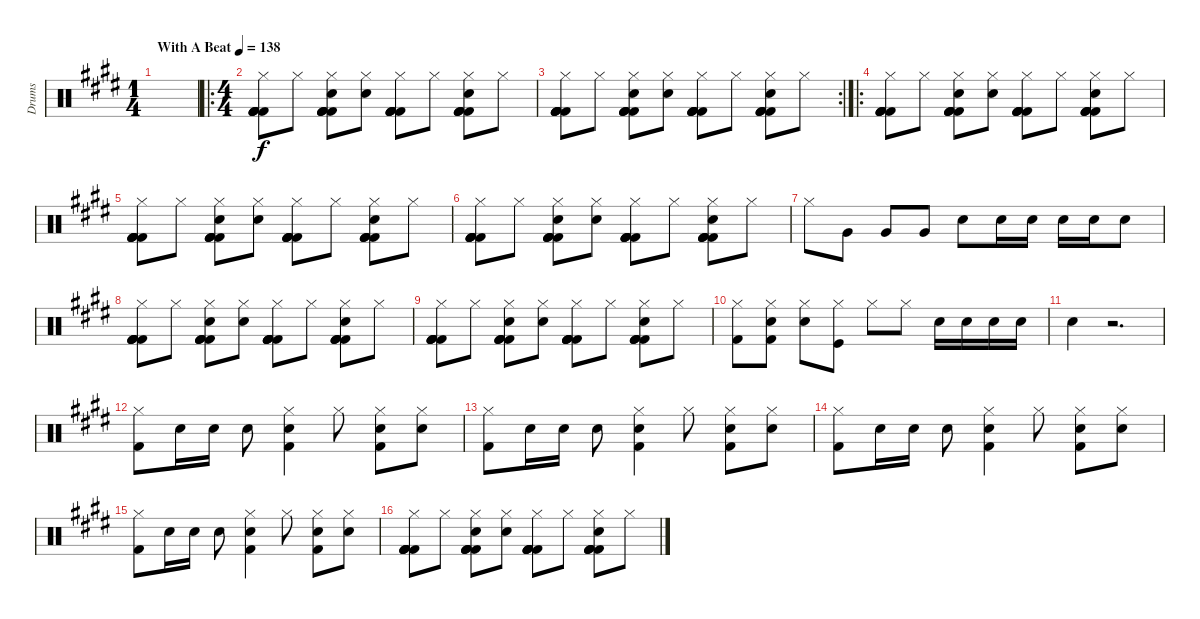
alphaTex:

\track ("Drums" "Drums") {instrument percussion}
\staff {score}
\articulation defaults
\ts (1 4)
\tempo (138 "With A Beat")
\clef neutral
\ks e
|
\ro
\ts (4 4)
("Hi-Hat (closed)" "Kick (hit) 2" "Kick (hit) 2" "Kick (hit) 2" "Kick (hit) 2" "Kick (hit) 2").8 "Hi-Hat (closed)".8 ("Hi-Hat (closed)" "Snare (hit) 2" "Kick (hit) 2" "Kick (hit) 2" "Kick (hit) 2" "Kick (hit) 2").8 ("Hi-Hat (closed)" "Snare (hit) 2").8 ("Hi-Hat (closed)" "Kick (hit) 2" "Kick (hit) 2" "Kick (hit) 2" "Kick (hit) 2" "Kick (hit) 2").8 "Hi-Hat (closed)".8 ("Hi-Hat (closed)" "Snare (hit) 2" "Kick (hit) 2" "Kick (hit) 2" "Kick (hit) 2" "Kick (hit) 2").8 "Hi-Hat (closed)".8 |
\rc 2
("Hi-Hat (closed)" "Kick (hit) 2" "Kick (hit) 2" "Kick (hit) 2" "Kick (hit) 2" "Kick (hit) 2").8 "Hi-Hat (closed)".8 ("Hi-Hat (closed)" "Snare (hit) 2" "Kick (hit) 2" "Kick (hit) 2" "Kick (hit) 2" "Kick (hit) 2").8 ("Hi-Hat (closed)" "Snare (hit) 2").8 ("Hi-Hat (closed)" "Kick (hit) 2" "Kick (hit) 2" "Kick (hit) 2" "Kick (hit) 2" "Kick (hit) 2").8 "Hi-Hat (closed)".8 ("Hi-Hat (closed)" "Snare (hit) 2" "Kick (hit) 2" "Kick (hit) 2" "Kick (hit) 2" "Kick (hit) 2").8 "Hi-Hat (closed)".8 |
\ro
("Hi-Hat (closed)" "Kick (hit) 2" "Kick (hit) 2" "Kick (hit) 2" "Kick (hit) 2" "Kick (hit) 2").8 "Hi-Hat (closed)".8 ("Hi-Hat (closed)" "Snare (hit) 2" "Kick (hit) 2" "Kick (hit) 2" "Kick (hit) 2" "Kick (hit) 2").8 ("Hi-Hat (closed)" "Snare (hit) 2").8 ("Hi-Hat (closed)" "Kick (hit) 2" "Kick (hit) 2" "Kick (hit) 2" "Kick (hit) 2" "Kick (hit) 2").8 "Hi-Hat (closed)".8 ("Hi-Hat (closed)" "Snare (hit) 2" "Kick (hit) 2" "Kick (hit) 2" "Kick (hit) 2" "Kick (hit) 2").8 "Hi-Hat (closed)".8 |
("Hi-Hat (closed)" "Kick (hit) 2" "Kick (hit) 2" "Kick (hit) 2" "Kick (hit) 2" "Kick (hit) 2").8 "Hi-Hat (closed)".8 ("Hi-Hat (closed)" "Snare (hit) 2" "Kick (hit) 2" "Kick (hit) 2" "Kick (hit) 2" "Kick (hit) 2").8 ("Hi-Hat (closed)" "Snare (hit) 2").8 ("Hi-Hat (closed)" "Kick (hit) 2" "Kick (hit) 2" "Kick (hit) 2" "Kick (hit) 2" "Kick (hit) 2").8 "Hi-Hat (closed)".8 ("Hi-Hat (closed)" "Snare (hit) 2" "Kick (hit) 2" "Kick (hit) 2" "Kick (hit) 2" "Kick (hit) 2").8 "Hi-Hat (closed)".8 |
("Hi-Hat (closed)" "Kick (hit) 2" "Kick (hit) 2" "Kick (hit) 2" "Kick (hit) 2" "Kick (hit) 2").8 "Hi-Hat (closed)".8 ("Hi-Hat (closed)" "Snare (hit) 2" "Kick (hit) 2" "Kick (hit) 2" "Kick (hit) 2" "Kick (hit) 2").8 ("Hi-Hat (closed)" "Snare (hit) 2").8 ("Hi-Hat (closed)" "Kick (hit) 2" "Kick (hit) 2" "Kick (hit) 2" "Kick (hit) 2" "Kick (hit) 2").8 "Hi-Hat (closed)".8 ("Hi-Hat (closed)" "Snare (hit) 2" "Kick (hit) 2" "Kick (hit) 2" "Kick (hit) 2" "Kick (hit) 2").8 "Hi-Hat (closed)".8 |
"Hi-Hat (closed)".8 "Very Low Tom (hit)".8 "Very Low Tom (hit)".8 "Very Low Tom (hit)".8 "Snare (hit) 2".8 "Snare (hit) 2".16 "Snare (hit) 2".16 "Snare (hit) 2".16 "Snare (hit) 2".16 "Snare (hit) 2".8 |
("Hi-Hat (closed)" "Kick (hit) 2" "Kick (hit) 2" "Kick (hit) 2" "Kick (hit) 2" "Kick (hit) 2").8 "Hi-Hat (closed)".8 ("Hi-Hat (closed)" "Snare (hit) 2" "Kick (hit) 2" "Kick (hit) 2" "Kick (hit) 2" "Kick (hit) 2").8 ("Hi-Hat (closed)" "Snare (hit) 2").8 ("Hi-Hat (closed)" "Kick (hit) 2" "Kick (hit) 2" "Kick (hit) 2" "Kick (hit) 2" "Kick (hit) 2").8 "Hi-Hat (closed)".8 ("Hi-Hat (closed)" "Snare (hit) 2" "Kick (hit) 2" "Kick (hit) 2" "Kick (hit) 2" "Kick (hit) 2").8 "Hi-Hat (closed)".8 |
("Hi-Hat (closed)" "Kick (hit) 2" "Kick (hit) 2" "Kick (hit) 2" "Kick (hit) 2" "Kick (hit) 2").8 "Hi-Hat (closed)".8 ("Hi-Hat (closed)" "Snare (hit) 2" "Kick (hit) 2" "Kick (hit) 2" "Kick (hit) 2" "Kick (hit) 2").8 ("Hi-Hat (closed)" "Snare (hit) 2").8 ("Hi-Hat (closed)" "Kick (hit) 2" "Kick (hit) 2" "Kick (hit) 2" "Kick (hit) 2" "Kick (hit) 2").8 "Hi-Hat (closed)".8 ("Hi-Hat (closed)" "Snare (hit) 2" "Kick (hit) 2" "Kick (hit) 2" "Kick (hit) 2" "Kick (hit) 2").8 "Hi-Hat (closed)".8 |
("Hi-Hat (closed)" "Kick (hit) 2").8 ("Hi-Hat (closed)" "Kick (hit) 2" "Snare (hit) 2").8 ("Hi-Hat (closed)" "Snare (hit) 2").8 ("Hi-Hat (closed)" "Kick (hit)").8 "Hi-Hat (closed)".8 "Hi-Hat (closed)".8 "Snare (hit) 2".16 "Snare (hit) 2".16 "Snare (hit) 2".16 "Snare (hit) 2".16 |
"Snare (hit) 2".4 r.2{d} |
("Hi-Hat (closed)" "Kick (hit) 2").8 "Snare (hit) 2".16 "Snare (hit) 2".16 "Snare (hit) 2".8 ("Hi-Hat (closed)" "Snare (hit) 2" "Kick (hit) 2").4 "Hi-Hat (closed)".8 ("Hi-Hat (closed)" "Snare (hit) 2" "Kick (hit) 2").8 ("Hi-Hat (closed)" "Snare (hit) 2").8 |
("Hi-Hat (closed)" "Kick (hit) 2").8 "Snare (hit) 2".16 "Snare (hit) 2".16 "Snare (hit) 2".8 ("Hi-Hat (closed)" "Snare (hit) 2" "Kick (hit) 2").4 "Hi-Hat (closed)".8 ("Hi-Hat (closed)" "Snare (hit) 2" "Kick (hit) 2").8 ("Hi-Hat (closed)" "Snare (hit) 2").8 |
("Hi-Hat (closed)" "Kick (hit) 2").8 "Snare (hit) 2".16 "Snare (hit) 2".16 "Snare (hit) 2".8 ("Hi-Hat (closed)" "Snare (hit) 2" "Kick (hit) 2").4 "Hi-Hat (closed)".8 ("Hi-Hat (closed)" "Snare (hit) 2" "Kick (hit) 2").8 ("Hi-Hat (closed)" "Snare (hit) 2").8 |
("Hi-Hat (closed)" "Kick (hit) 2").8 "Snare (hit) 2".16 "Snare (hit) 2".16 "Snare (hit) 2".8 ("Hi-Hat (closed)" "Snare (hit) 2" "Kick (hit) 2").4 "Hi-Hat (closed)".8 ("Hi-Hat (closed)" "Snare (hit) 2" "Kick (hit) 2").8 ("Hi-Hat (closed)" "Snare (hit) 2").8 |
("Hi-Hat (closed)" "Kick (hit) 2" "Kick (hit) 2" "Kick (hit) 2" "Kick (hit) 2" "Kick (hit) 2").8 "Hi-Hat (closed)".8 ("Hi-Hat (closed)" "Snare (hit) 2" "Kick (hit) 2" "Kick (hit) 2" "Kick (hit) 2" "Kick (hit) 2").8 ("Hi-Hat (closed)" "Snare (hit) 2").8 ("Hi-Hat (closed)" "Kick (hit) 2" "Kick (hit) 2" "Kick (hit) 2" "Kick (hit) 2" "Kick (hit) 2").8 "Hi-Hat (closed)".8 ("Hi-Hat (closed)" "Snare (hit) 2" "Kick (hit) 2" "Kick (hit) 2" "Kick (hit) 2" "Kick (hit) 2").8 "Hi-Hat (closed)".8
